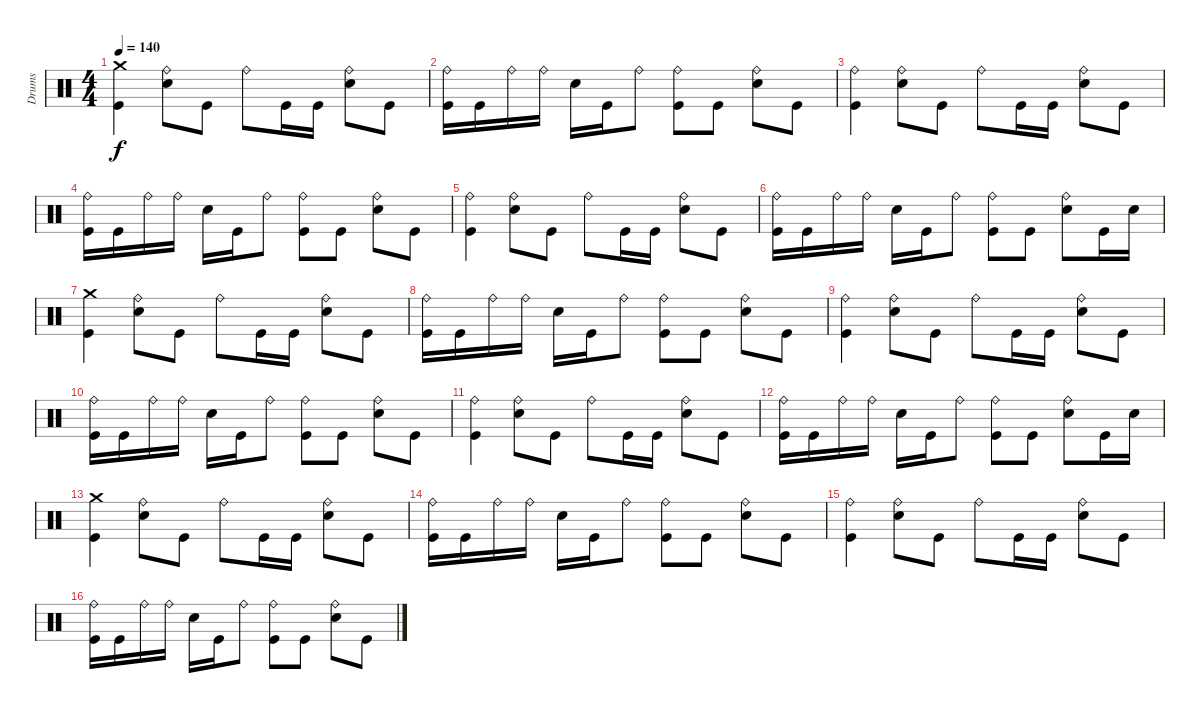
\track ("Drums" "Drums") {instrument percussion}
\staff {score}
\articulation defaults
\ts (4 4)
\tempo 140
\clef neutral
\ks c
("Kick (hit)" "Crash medium (hit)").4{dy f} ("Electric Snare (hit)" "Ride (bell)").8 "Kick (hit)".8 "Ride (bell)".8 "Kick (hit)".16 "Kick (hit)".16 ("Electric Snare (hit)" "Ride (bell)").8 "Kick (hit)".8 |
("Kick (hit)" "Ride (bell)").16 "Kick (hit)".16 "Ride (bell)".16 "Ride (bell)".16 "Electric Snare (hit)".16 "Kick (hit)".16 "Ride (bell)".8 ("Kick (hit)" "Ride (bell)").8 "Kick (hit)".8 ("Electric Snare (hit)" "Ride (bell)").8 "Kick (hit)".8 |
("Kick (hit)" "Ride (bell)").4 ("Electric Snare (hit)" "Ride (bell)").8 "Kick (hit)".8 "Ride (bell)".8 "Kick (hit)".16 "Kick (hit)".16 ("Electric Snare (hit)" "Ride (bell)").8 "Kick (hit)".8 |
("Kick (hit)" "Ride (bell)").16 "Kick (hit)".16 "Ride (bell)".16 "Ride (bell)".16 "Electric Snare (hit)".16 "Kick (hit)".16 "Ride (bell)".8 ("Kick (hit)" "Ride (bell)").8 "Kick (hit)".8 ("Electric Snare (hit)" "Ride (bell)").8 "Kick (hit)".8 |
("Kick (hit)" "Ride (bell)").4 ("Electric Snare (hit)" "Ride (bell)").8 "Kick (hit)".8 "Ride (bell)".8 "Kick (hit)".16 "Kick (hit)".16 ("Electric Snare (hit)" "Ride (bell)").8 "Kick (hit)".8 |
("Kick (hit)" "Ride (bell)").16 "Kick (hit)".16 "Ride (bell)".16 "Ride (bell)".16 "Electric Snare (hit)".16 "Kick (hit)".16 "Ride (bell)".8 ("Kick (hit)" "Ride (bell)").8 "Kick (hit)".8 ("Electric Snare (hit)" "Ride (bell)").8 "Kick (hit)".16 "Electric Snare (hit)".16 |
("Kick (hit)" "Crash medium (hit)").4 ("Electric Snare (hit)" "Ride (bell)").8 "Kick (hit)".8 "Ride (bell)".8 "Kick (hit)".16 "Kick (hit)".16 ("Electric Snare (hit)" "Ride (bell)").8 "Kick (hit)".8 |
("Kick (hit)" "Ride (bell)").16 "Kick (hit)".16 "Ride (bell)".16 "Ride (bell)".16 "Electric Snare (hit)".16 "Kick (hit)".16 "Ride (bell)".8 ("Kick (hit)" "Ride (bell)").8 "Kick (hit)".8 ("Electric Snare (hit)" "Ride (bell)").8 "Kick (hit)".8 |
("Kick (hit)" "Ride (bell)").4 ("Electric Snare (hit)" "Ride (bell)").8 "Kick (hit)".8 "Ride (bell)".8 "Kick (hit)".16 "Kick (hit)".16 ("Electric Snare (hit)" "Ride (bell)").8 "Kick (hit)".8 |
("Kick (hit)" "Ride (bell)").16 "Kick (hit)".16 "Ride (bell)".16 "Ride (bell)".16 "Electric Snare (hit)".16 "Kick (hit)".16 "Ride (bell)".8 ("Kick (hit)" "Ride (bell)").8 "Kick (hit)".8 ("Electric Snare (hit)" "Ride (bell)").8 "Kick (hit)".8 |
("Kick (hit)" "Ride (bell)").4 ("Electric Snare (hit)" "Ride (bell)").8 "Kick (hit)".8 "Ride (bell)".8 "Kick (hit)".16 "Kick (hit)".16 ("Electric Snare (hit)" "Ride (bell)").8 "Kick (hit)".8 |
("Kick (hit)" "Ride (bell)").16 "Kick (hit)".16 "Ride (bell)".16 "Ride (bell)".16 "Electric Snare (hit)".16 "Kick (hit)".16 "Ride (bell)".8 ("Kick (hit)" "Ride (bell)").8 "Kick (hit)".8 ("Electric Snare (hit)" "Ride (bell)").8 "Kick (hit)".16 "Electric Snare (hit)".16 |
("Kick (hit)" "Crash medium (hit)").4 ("Electric Snare (hit)" "Ride (bell)").8 "Kick (hit)".8 "Ride (bell)".8 "Kick (hit)".16 "Kick (hit)".16 ("Electric Snare (hit)" "Ride (bell)").8 "Kick (hit)".8 |
("Kick (hit)" "Ride (bell)").16 "Kick (hit)".16 "Ride (bell)".16 "Ride (bell)".16 "Electric Snare (hit)".16 "Kick (hit)".16 "Ride (bell)".8 ("Kick (hit)" "Ride (bell)").8 "Kick (hit)".8 ("Electric Snare (hit)" "Ride (bell)").8 "Kick (hit)".8 |
("Kick (hit)" "Ride (bell)").4 ("Electric Snare (hit)" "Ride (bell)").8 "Kick (hit)".8 "Ride (bell)".8 "Kick (hit)".16 "Kick (hit)".16 ("Electric Snare (hit)" "Ride (bell)").8 "Kick (hit)".8 |
("Kick (hit)" "Ride (bell)").16 "Kick (hit)".16 "Ride (bell)".16 "Ride (bell)".16 "Electric Snare (hit)".16 "Kick (hit)".16 "Ride (bell)".8 ("Kick (hit)" "Ride (bell)").8 "Kick (hit)".8 ("Electric Snare (hit)" "Ride (bell)").8 "Kick (hit)".8
